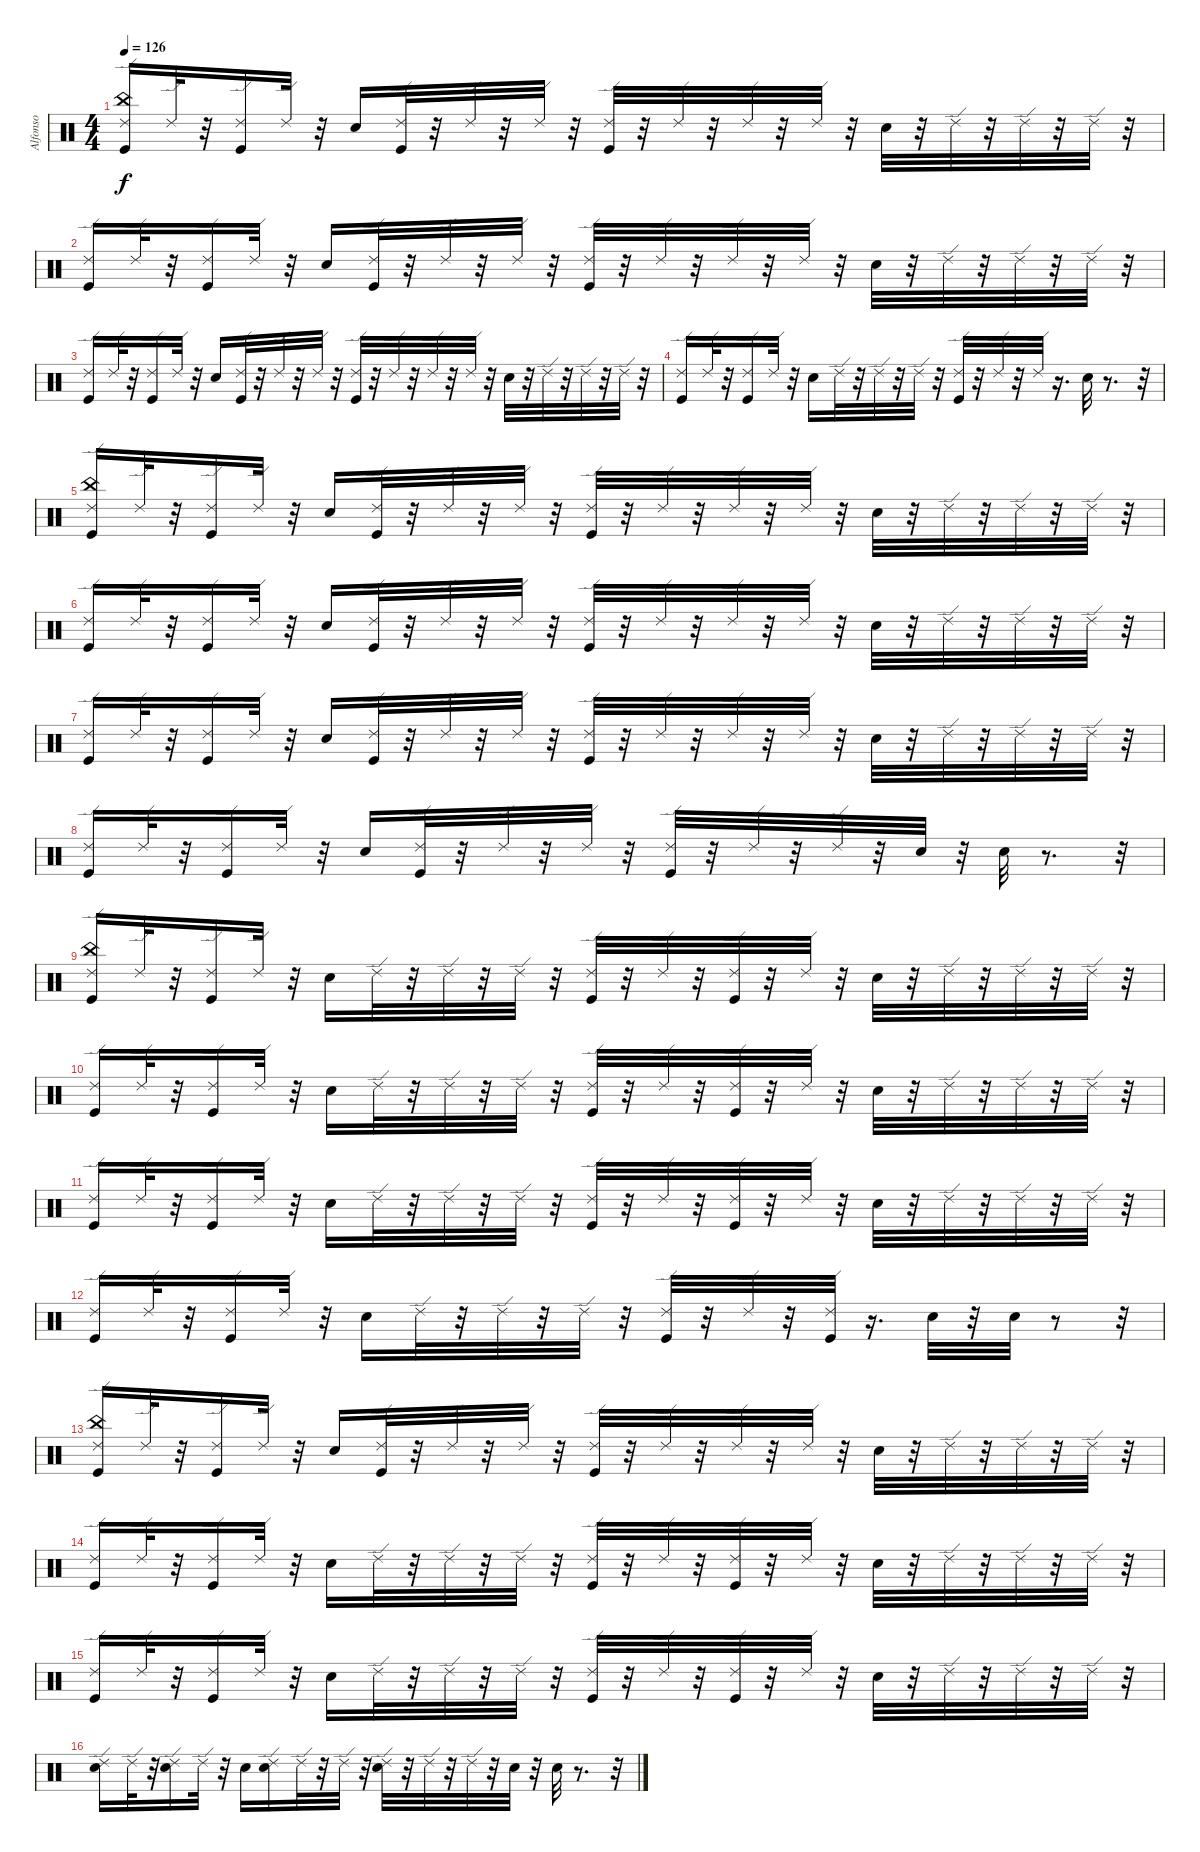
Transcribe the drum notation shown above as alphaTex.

\track ("Alfonso" "Alfonso") {instrument percussion}
\staff {score}
\articulation defaults
\ts (4 4)
\tempo 126
\clef neutral
\ks c
("Ride (edge) 2" "China (hit)" "Kick (hit)").16{dy f} "Ride (edge) 2".32 r.32 ("Ride (edge) 2" "Kick (hit)").16 "Ride (edge) 2".32 r.32 "Snare (hit) 2".16 ("Kick (hit)" "Ride (edge) 2").32 r.32 "Ride (edge) 2".32 r.32 "Ride (edge) 2".32 r.32 ("Kick (hit)" "Ride (edge) 2").32 r.32 "Ride (edge) 2".32 r.32 "Ride (edge) 2".32 r.32 "Ride (edge) 2".32 r.32 "Snare (hit) 2".32 r.32 "Ride (edge) 2".32 r.32 "Ride (edge) 2".32 r.32 "Ride (edge) 2".32 r.32 |
("Ride (edge) 2" "Kick (hit)").16 "Ride (edge) 2".32 r.32 ("Kick (hit)" "Ride (edge) 2").16 "Ride (edge) 2".32 r.32 "Snare (hit) 2".16 ("Ride (edge) 2" "Kick (hit)").32 r.32 "Ride (edge) 2".32 r.32 "Ride (edge) 2".32 r.32 ("Kick (hit)" "Ride (edge) 2").32 r.32 "Ride (edge) 2".32 r.32 "Ride (edge) 2".32 r.32 "Ride (edge) 2".32 r.32 "Snare (hit) 2".32 r.32 "Ride (edge) 2".32 r.32 "Ride (edge) 2".32 r.32 "Ride (edge) 2".32 r.32 |
("Kick (hit)" "Ride (edge) 2").16 "Ride (edge) 2".32 r.32 ("Kick (hit)" "Ride (edge) 2").16 "Ride (edge) 2".32 r.32 "Snare (hit) 2".16 ("Ride (edge) 2" "Kick (hit)").32 r.32 "Ride (edge) 2".32 r.32 "Ride (edge) 2".32 r.32 ("Ride (edge) 2" "Kick (hit)").32 r.32 "Ride (edge) 2".32 r.32 "Ride (edge) 2".32 r.32 "Ride (edge) 2".32 r.32 "Snare (hit) 2".32 r.32 "Ride (edge) 2".32 r.32 "Ride (edge) 2".32 r.32 "Ride (edge) 2".32 r.32 |
("Kick (hit)" "Ride (edge) 2").16 "Ride (edge) 2".32 r.32 ("Kick (hit)" "Ride (edge) 2").16 "Ride (edge) 2".32 r.32 "Snare (hit) 2".16 "Ride (edge) 2".32 r.32 "Ride (edge) 2".32 r.32 "Ride (edge) 2".32 r.32 ("Kick (hit)" "Ride (edge) 2").32 r.32 "Ride (edge) 2".32 r.32 "Ride (edge) 2".32 r.16{d} "Snare (hit) 2".32 r.8{d} r.32 |
("Ride (edge) 2" "China (hit)" "Kick (hit)").16 "Ride (edge) 2".32 r.32 ("Ride (edge) 2" "Kick (hit)").16 "Ride (edge) 2".32 r.32 "Snare (hit) 2".16 ("Kick (hit)" "Ride (edge) 2").32 r.32 "Ride (edge) 2".32 r.32 "Ride (edge) 2".32 r.32 ("Kick (hit)" "Ride (edge) 2").32 r.32 "Ride (edge) 2".32 r.32 "Ride (edge) 2".32 r.32 "Ride (edge) 2".32 r.32 "Snare (hit) 2".32 r.32 "Ride (edge) 2".32 r.32 "Ride (edge) 2".32 r.32 "Ride (edge) 2".32 r.32 |
("Ride (edge) 2" "Kick (hit)").16 "Ride (edge) 2".32 r.32 ("Kick (hit)" "Ride (edge) 2").16 "Ride (edge) 2".32 r.32 "Snare (hit) 2".16 ("Ride (edge) 2" "Kick (hit)").32 r.32 "Ride (edge) 2".32 r.32 "Ride (edge) 2".32 r.32 ("Kick (hit)" "Ride (edge) 2").32 r.32 "Ride (edge) 2".32 r.32 "Ride (edge) 2".32 r.32 "Ride (edge) 2".32 r.32 "Snare (hit) 2".32 r.32 "Ride (edge) 2".32 r.32 "Ride (edge) 2".32 r.32 "Ride (edge) 2".32 r.32 |
("Kick (hit)" "Ride (edge) 2").16 "Ride (edge) 2".32 r.32 ("Kick (hit)" "Ride (edge) 2").16 "Ride (edge) 2".32 r.32 "Snare (hit) 2".16 ("Ride (edge) 2" "Kick (hit)").32 r.32 "Ride (edge) 2".32 r.32 "Ride (edge) 2".32 r.32 ("Ride (edge) 2" "Kick (hit)").32 r.32 "Ride (edge) 2".32 r.32 "Ride (edge) 2".32 r.32 "Ride (edge) 2".32 r.32 "Snare (hit) 2".32 r.32 "Ride (edge) 2".32 r.32 "Ride (edge) 2".32 r.32 "Ride (edge) 2".32 r.32 |
("Kick (hit)" "Ride (edge) 2").16 "Ride (edge) 2".32 r.32 ("Kick (hit)" "Ride (edge) 2").16 "Ride (edge) 2".32 r.32 "Snare (hit) 2".16 ("Kick (hit)" "Ride (edge) 2").32 r.32 "Ride (edge) 2".32 r.32 "Ride (edge) 2".32 r.32 ("Kick (hit)" "Ride (edge) 2").32 r.32 "Ride (edge) 2".32 r.32 "Ride (edge) 2".32 r.32 "Snare (hit) 2".32 r.32 "Snare (hit) 2".32 r.8{d} r.32 |
("Ride (edge) 2" "China (hit)" "Kick (hit)").16 "Ride (edge) 2".32 r.32 ("Ride (edge) 2" "Kick (hit)").16 "Ride (edge) 2".32 r.32 "Snare (hit) 2".16 "Ride (edge) 2".32 r.32 "Ride (edge) 2".32 r.32 "Ride (edge) 2".32 r.32 ("Kick (hit)" "Ride (edge) 2").32 r.32 "Ride (edge) 2".32 r.32 ("Kick (hit)" "Ride (edge) 2").32 r.32 "Ride (edge) 2".32 r.32 "Snare (hit) 2".32 r.32 "Ride (edge) 2".32 r.32 "Ride (edge) 2".32 r.32 "Ride (edge) 2".32 r.32 |
("Ride (edge) 2" "Kick (hit)").16 "Ride (edge) 2".32 r.32 ("Kick (hit)" "Ride (edge) 2").16 "Ride (edge) 2".32 r.32 "Snare (hit) 2".16 "Ride (edge) 2".32 r.32 "Ride (edge) 2".32 r.32 "Ride (edge) 2".32 r.32 ("Kick (hit)" "Ride (edge) 2").32 r.32 "Ride (edge) 2".32 r.32 ("Kick (hit)" "Ride (edge) 2").32 r.32 "Ride (edge) 2".32 r.32 "Snare (hit) 2".32 r.32 "Ride (edge) 2".32 r.32 "Ride (edge) 2".32 r.32 "Ride (edge) 2".32 r.32 |
("Kick (hit)" "Ride (edge) 2").16 "Ride (edge) 2".32 r.32 ("Kick (hit)" "Ride (edge) 2").16 "Ride (edge) 2".32 r.32 "Snare (hit) 2".16 "Ride (edge) 2".32 r.32 "Ride (edge) 2".32 r.32 "Ride (edge) 2".32 r.32 ("Ride (edge) 2" "Kick (hit)").32 r.32 "Ride (edge) 2".32 r.32 ("Kick (hit)" "Ride (edge) 2").32 r.32 "Ride (edge) 2".32 r.32 "Snare (hit) 2".32 r.32 "Ride (edge) 2".32 r.32 "Ride (edge) 2".32 r.32 "Ride (edge) 2".32 r.32 |
("Kick (hit)" "Ride (edge) 2").16 "Ride (edge) 2".32 r.32 ("Kick (hit)" "Ride (edge) 2").16 "Ride (edge) 2".32 r.32 "Snare (hit) 2".16 "Ride (edge) 2".32 r.32 "Ride (edge) 2".32 r.32 "Ride (edge) 2".32 r.32 ("Kick (hit)" "Ride (edge) 2").32 r.32 "Ride (edge) 2".32 r.32 ("Kick (hit)" "Ride (edge) 2").32 r.16{d} "Snare (hit) 2".32 r.32 "Snare (hit) 2".32 r.8 r.32 |
("Ride (edge) 2" "China (hit)" "Kick (hit)").16 "Ride (edge) 2".32 r.32 ("Ride (edge) 2" "Kick (hit)").16 "Ride (edge) 2".32 r.32 "Snare (hit) 2".16 ("Kick (hit)" "Ride (edge) 2").32 r.32 "Ride (edge) 2".32 r.32 "Ride (edge) 2".32 r.32 ("Kick (hit)" "Ride (edge) 2").32 r.32 "Ride (edge) 2".32 r.32 "Ride (edge) 2".32 r.32 "Ride (edge) 2".32 r.32 "Snare (hit) 2".32 r.32 "Ride (edge) 2".32 r.32 "Ride (edge) 2".32 r.32 "Ride (edge) 2".32 r.32 |
("Ride (edge) 2" "Kick (hit)").16 "Ride (edge) 2".32 r.32 ("Kick (hit)" "Ride (edge) 2").16 "Ride (edge) 2".32 r.32 "Snare (hit) 2".16 "Ride (edge) 2".32 r.32 "Ride (edge) 2".32 r.32 "Ride (edge) 2".32 r.32 ("Kick (hit)" "Ride (edge) 2").32 r.32 "Ride (edge) 2".32 r.32 ("Kick (hit)" "Ride (edge) 2").32 r.32 "Ride (edge) 2".32 r.32 "Snare (hit) 2".32 r.32 "Ride (edge) 2".32 r.32 "Ride (edge) 2".32 r.32 "Ride (edge) 2".32 r.32 |
("Kick (hit)" "Ride (edge) 2").16 "Ride (edge) 2".32 r.32 ("Kick (hit)" "Ride (edge) 2").16 "Ride (edge) 2".32 r.32 "Snare (hit) 2".16 "Ride (edge) 2".32 r.32 "Ride (edge) 2".32 r.32 "Ride (edge) 2".32 r.32 ("Ride (edge) 2" "Kick (hit)").32 r.32 "Ride (edge) 2".32 r.32 ("Kick (hit)" "Ride (edge) 2").32 r.32 "Ride (edge) 2".32 r.32 "Snare (hit) 2".32 r.32 "Ride (edge) 2".32 r.32 "Ride (edge) 2".32 r.32 "Ride (edge) 2".32 r.32 |
("Snare (hit) 2" "Ride (edge) 2").16 "Ride (edge) 2".32 r.32 ("Snare (hit) 2" "Ride (edge) 2").16 "Ride (edge) 2".32 r.32 "Snare (hit) 2".16 ("Snare (hit) 2" "Ride (edge) 2").16 "Ride (edge) 2".32 r.32 "Ride (edge) 2".32 r.32 ("Snare (hit) 2" "Ride (edge) 2").32 r.32 "Ride (edge) 2".32 r.32 "Ride (edge) 2".32 r.32 "Snare (hit) 2".32 r.32 "Snare (hit) 2".32 r.8{d} r.32
